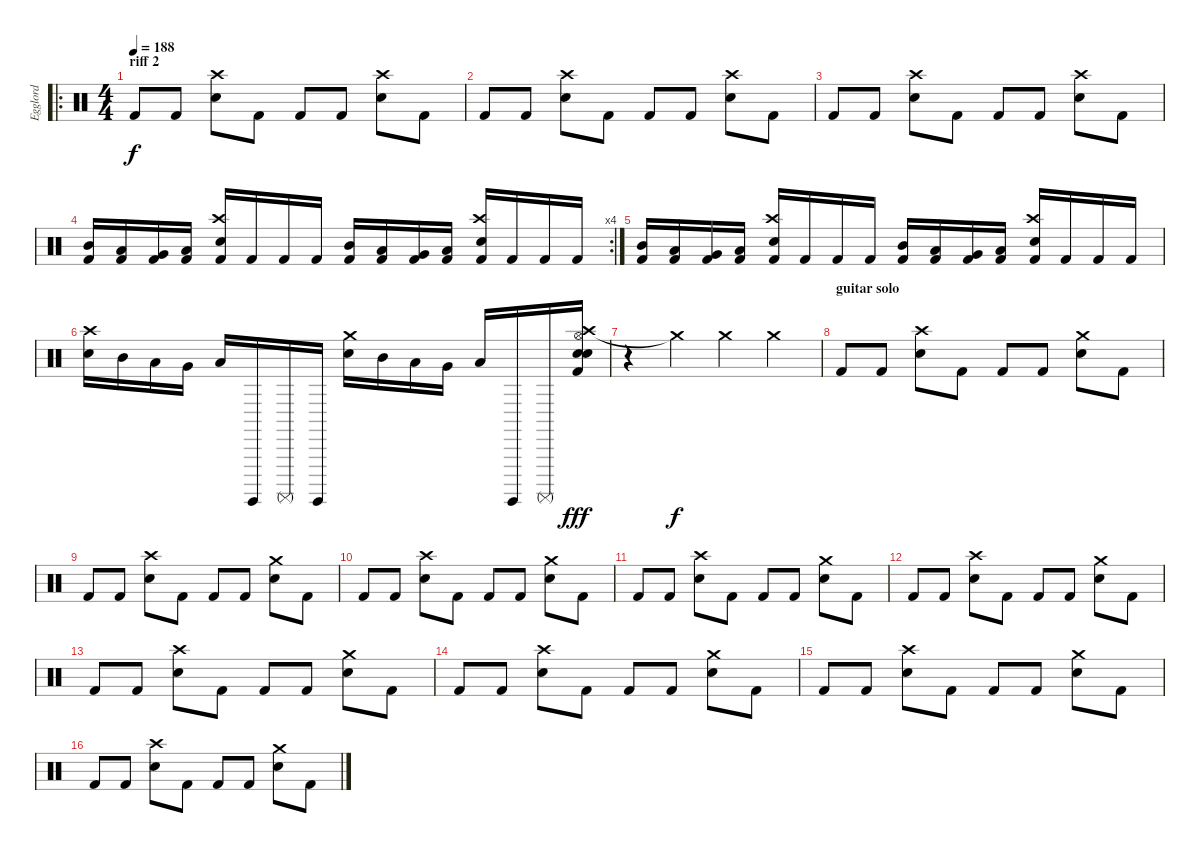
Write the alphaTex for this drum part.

\track ("Egglord" "Egglord") {instrument percussion}
\staff {score}
\articulation defaults
\ro
\ts (4 4)
\section ("" "riff 2")
\tempo 188
\clef neutral
\ks c "Kick (hit) 2".8{dy f} "Kick (hit) 2".8
("Crash high (hit)" "Electric Snare (hit)").8 "Kick (hit) 2".8 "Kick (hit) 2".8 "Kick (hit) 2".8 ("Crash high (hit)" "Electric Snare (hit)").8 "Kick (hit) 2".8 |
"Kick (hit) 2".8 "Kick (hit) 2".8 ("Crash high (hit)" "Electric Snare (hit)").8 "Kick (hit) 2".8 "Kick (hit) 2".8 "Kick (hit) 2".8 ("Crash high (hit)" "Electric Snare (hit)").8 "Kick (hit) 2".8 |
"Kick (hit) 2".8 "Kick (hit) 2".8 ("Crash high (hit)" "Electric Snare (hit)").8 "Kick (hit) 2".8 "Kick (hit) 2".8 "Kick (hit) 2".8 ("Crash high (hit)" "Electric Snare (hit)").8 "Kick (hit) 2".8 |
\rc 4
("Mid Tom (hit)" "Kick (hit) 2").16 ("Low Tom (hit)" "Kick (hit) 2").16 ("Very Low Tom (hit)" "Kick (hit) 2").16 ("Low Floor Tom (hit)" "Kick (hit) 2").16 ("Crash high (hit)" "Electric Snare (hit)" "Kick (hit) 2").16 "Kick (hit) 2".16 "Kick (hit) 2".16 "Kick (hit) 2".16 ("Mid Tom (hit)" "Kick (hit) 2").16 ("Low Tom (hit)" "Kick (hit) 2").16 ("Very Low Tom (hit)" "Kick (hit) 2").16 ("Low Floor Tom (hit)" "Kick (hit) 2").16 ("Crash high (hit)" "Electric Snare (hit)" "Kick (hit) 2").16 "Kick (hit) 2".16 "Kick (hit) 2".16 "Kick (hit) 2".16 |
("Mid Tom (hit)" "Kick (hit) 2").16 ("Low Tom (hit)" "Kick (hit) 2").16 ("Very Low Tom (hit)" "Kick (hit) 2").16 ("Low Floor Tom (hit)" "Kick (hit) 2").16 ("Crash high (hit)" "Electric Snare (hit)" "Kick (hit) 2").16 "Kick (hit) 2".16 "Kick (hit) 2".16 "Kick (hit) 2".16 ("Mid Tom (hit)" "Kick (hit) 2").16 ("Low Tom (hit)" "Kick (hit) 2").16 ("Very Low Tom (hit)" "Kick (hit) 2").16 ("Low Floor Tom (hit)" "Kick (hit) 2").16 ("Crash high (hit)" "Electric Snare (hit)" "Kick (hit) 2").16 "Kick (hit) 2".16 "Kick (hit) 2".16 "Kick (hit) 2".16 |
\section ("" "")
("Crash high (hit)" "Electric Snare (hit)").16 "Mid Tom (hit)".16 "Low Tom (hit)".16 "Very Low Tom (hit)".16 "Low Floor Tom (hit)".16 "Surdo (hit)".16 "Surdo (mute)".16 "Surdo (hit)".16 ("Crash medium (hit)" "Electric Snare (hit)").16 "Mid Tom (hit)".16 "Low Tom (hit)".16 "Very Low Tom (hit)".16 "Low Floor Tom (hit)".16 "Surdo (hit)".16 "Surdo (mute)".16 ("Crash high (hit)" "Electric Snare (hit)" "Hi-Hat (open)" "Kick (hit) 2" "Electric Snare (hit)").16{dy fff} |
r.4 "Crash medium (hit)"{t}.4{dy f} "Crash medium (hit)".4 "Crash medium (hit)".4 |
\section ("" "guitar solo")
"Kick (hit) 2".8 "Kick (hit) 2".8 ("Crash high (hit)" "Electric Snare (hit)").8 "Kick (hit) 2".8 "Kick (hit) 2".8 "Kick (hit) 2".8 ("Crash medium (hit)" "Electric Snare (hit)").8 "Kick (hit) 2".8 |
"Kick (hit) 2".8 "Kick (hit) 2".8 ("Crash high (hit)" "Electric Snare (hit)").8 "Kick (hit) 2".8 "Kick (hit) 2".8 "Kick (hit) 2".8 ("Crash medium (hit)" "Electric Snare (hit)").8 "Kick (hit) 2".8 |
"Kick (hit) 2".8 "Kick (hit) 2".8 ("Crash high (hit)" "Electric Snare (hit)").8 "Kick (hit) 2".8 "Kick (hit) 2".8 "Kick (hit) 2".8 ("Crash medium (hit)" "Electric Snare (hit)").8 "Kick (hit) 2".8 |
"Kick (hit) 2".8 "Kick (hit) 2".8 ("Crash high (hit)" "Electric Snare (hit)").8 "Kick (hit) 2".8 "Kick (hit) 2".8 "Kick (hit) 2".8 ("Crash medium (hit)" "Electric Snare (hit)").8 "Kick (hit) 2".8 |
"Kick (hit) 2".8 "Kick (hit) 2".8 ("Crash high (hit)" "Electric Snare (hit)").8 "Kick (hit) 2".8 "Kick (hit) 2".8 "Kick (hit) 2".8 ("Crash medium (hit)" "Electric Snare (hit)").8 "Kick (hit) 2".8 |
"Kick (hit) 2".8 "Kick (hit) 2".8 ("Crash high (hit)" "Electric Snare (hit)").8 "Kick (hit) 2".8 "Kick (hit) 2".8 "Kick (hit) 2".8 ("Crash medium (hit)" "Electric Snare (hit)").8 "Kick (hit) 2".8 |
"Kick (hit) 2".8 "Kick (hit) 2".8 ("Crash high (hit)" "Electric Snare (hit)").8 "Kick (hit) 2".8 "Kick (hit) 2".8 "Kick (hit) 2".8 ("Crash medium (hit)" "Electric Snare (hit)").8 "Kick (hit) 2".8 |
"Kick (hit) 2".8 "Kick (hit) 2".8 ("Crash high (hit)" "Electric Snare (hit)").8 "Kick (hit) 2".8 "Kick (hit) 2".8 "Kick (hit) 2".8 ("Crash medium (hit)" "Electric Snare (hit)").8 "Kick (hit) 2".8 |
"Kick (hit) 2".8 "Kick (hit) 2".8 ("Crash high (hit)" "Electric Snare (hit)").8 "Kick (hit) 2".8 "Kick (hit) 2".8 "Kick (hit) 2".8 ("Crash medium (hit)" "Electric Snare (hit)").8 "Kick (hit) 2".8
